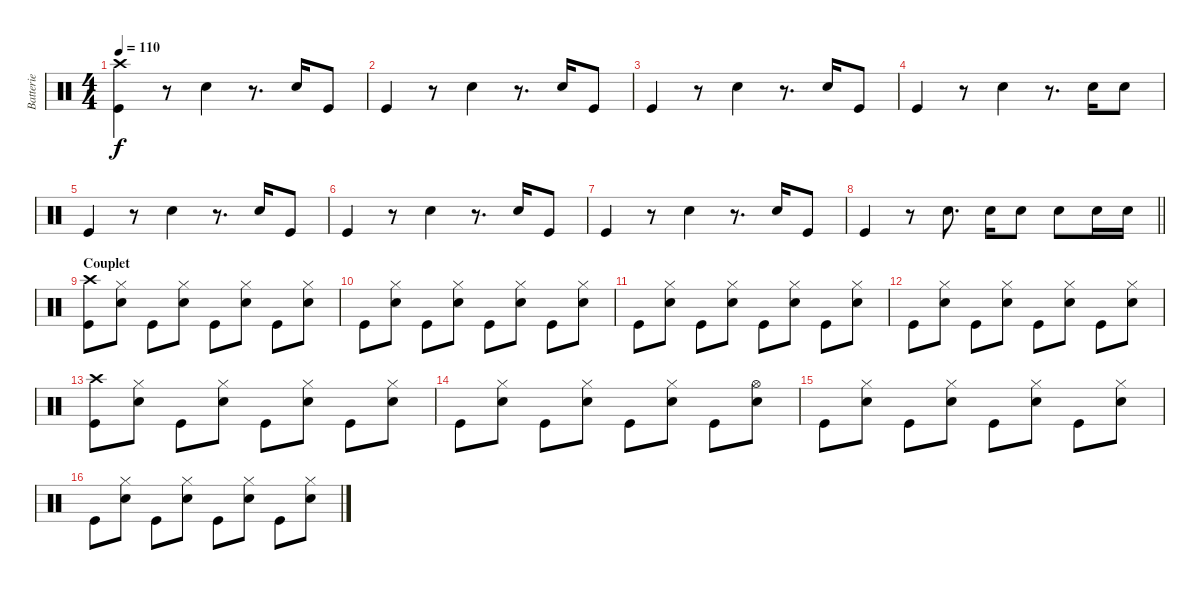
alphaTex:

\track ("Batterie" "Batterie") {instrument percussion}
\staff {score}
\articulation defaults
\ts (4 4)
\tempo 110
\clef neutral
\ks c
("Crash high (hit)" "Kick (hit)").4{dy f} r.8 "Snare (hit) 2".4 r.8{d} "Snare (hit) 2".16 "Kick (hit)".8 |
"Kick (hit)".4 r.8 "Snare (hit) 2".4 r.8{d} "Snare (hit) 2".16 "Kick (hit)".8 |
"Kick (hit)".4 r.8 "Snare (hit) 2".4 r.8{d} "Snare (hit) 2".16 "Kick (hit)".8 |
"Kick (hit)".4 r.8 "Snare (hit) 2".4 r.8{d} "Snare (hit) 2".16 "Snare (hit) 2".8 |
"Kick (hit)".4 r.8 "Snare (hit) 2".4 r.8{d} "Snare (hit) 2".16 "Kick (hit)".8 |
"Kick (hit)".4 r.8 "Snare (hit) 2".4 r.8{d} "Snare (hit) 2".16 "Kick (hit)".8 |
"Kick (hit)".4 r.8 "Snare (hit) 2".4 r.8{d} "Snare (hit) 2".16 "Kick (hit)".8 |
\barLineRight lightlight "Kick (hit)".4
r.8 "Snare (hit) 2".8{d} "Snare (hit) 2".16 "Snare (hit) 2".8 "Snare (hit) 2".8 "Snare (hit) 2".16 "Snare (hit) 2".16 |
\section ("" "Couplet")
("Kick (hit)" "Crash high (hit)").8 ("Snare (hit) 2" "Hi-Hat (closed)").8 "Kick (hit)".8 ("Snare (hit) 2" "Hi-Hat (closed)").8 "Kick (hit)".8 ("Snare (hit) 2" "Hi-Hat (closed)").8 "Kick (hit)".8 ("Snare (hit) 2" "Hi-Hat (closed)").8 |
"Kick (hit)".8 ("Snare (hit) 2" "Hi-Hat (closed)").8 "Kick (hit)".8 ("Snare (hit) 2" "Hi-Hat (closed)").8 "Kick (hit)".8 ("Snare (hit) 2" "Hi-Hat (closed)").8 "Kick (hit)".8 ("Snare (hit) 2" "Hi-Hat (closed)").8 |
"Kick (hit)".8 ("Snare (hit) 2" "Hi-Hat (closed)").8 "Kick (hit)".8 ("Snare (hit) 2" "Hi-Hat (closed)").8 "Kick (hit)".8 ("Snare (hit) 2" "Hi-Hat (closed)").8 "Kick (hit)".8 ("Snare (hit) 2" "Hi-Hat (closed)").8 |
"Kick (hit)".8 ("Snare (hit) 2" "Hi-Hat (closed)").8 "Kick (hit)".8 ("Snare (hit) 2" "Hi-Hat (closed)").8 "Kick (hit)".8 ("Snare (hit) 2" "Hi-Hat (closed)").8 "Kick (hit)".8 ("Snare (hit) 2" "Hi-Hat (closed)").8 |
("Kick (hit)" "Crash high (hit)").8 ("Snare (hit) 2" "Hi-Hat (closed)").8 "Kick (hit)".8 ("Snare (hit) 2" "Hi-Hat (closed)").8 "Kick (hit)".8 ("Snare (hit) 2" "Hi-Hat (closed)").8 "Kick (hit)".8 ("Snare (hit) 2" "Hi-Hat (closed)").8 |
"Kick (hit)".8 ("Snare (hit) 2" "Hi-Hat (closed)").8 "Kick (hit)".8 ("Snare (hit) 2" "Hi-Hat (closed)").8 "Kick (hit)".8 ("Snare (hit) 2" "Hi-Hat (closed)").8 "Kick (hit)".8 ("Snare (hit) 2" "Hi-Hat (open)").8 |
"Kick (hit)".8 ("Snare (hit) 2" "Hi-Hat (closed)").8 "Kick (hit)".8 ("Snare (hit) 2" "Hi-Hat (closed)").8 "Kick (hit)".8 ("Snare (hit) 2" "Hi-Hat (closed)").8 "Kick (hit)".8 ("Snare (hit) 2" "Hi-Hat (closed)").8 |
"Kick (hit)".8 ("Snare (hit) 2" "Hi-Hat (closed)").8 "Kick (hit)".8 ("Snare (hit) 2" "Hi-Hat (closed)").8 "Kick (hit)".8 ("Snare (hit) 2" "Hi-Hat (closed)").8 "Kick (hit)".8 ("Snare (hit) 2" "Hi-Hat (closed)").8
